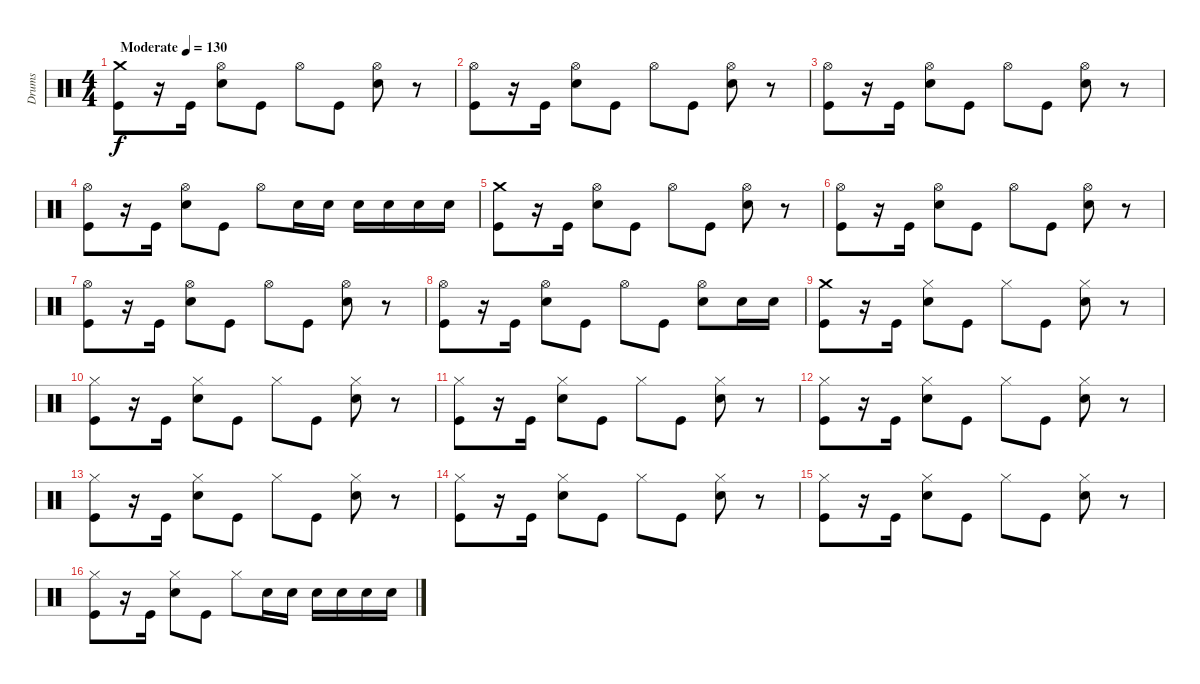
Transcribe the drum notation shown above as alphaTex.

\track ("Drums" "Drums") {instrument percussion}
\staff {score}
\articulation defaults
\ts (4 4)
\tempo (130 "Moderate")
\clef neutral
\ks c
("Crash medium (hit)" "Kick (hit)").8{dy f} r.16 "Kick (hit)".16 ("Hi-Hat (open)" "Snare (hit) 2").8 "Kick (hit)".8 "Hi-Hat (open)".8 "Kick (hit)".8 ("Hi-Hat (open)" "Snare (hit) 2").8 r.8 |
("Hi-Hat (open)" "Kick (hit)").8 r.16 "Kick (hit)".16 ("Hi-Hat (open)" "Snare (hit) 2").8 "Kick (hit)".8 "Hi-Hat (open)".8 "Kick (hit)".8 ("Hi-Hat (open)" "Snare (hit) 2").8 r.8 |
("Hi-Hat (open)" "Kick (hit)").8 r.16 "Kick (hit)".16 ("Hi-Hat (open)" "Snare (hit) 2").8 "Kick (hit)".8 "Hi-Hat (open)".8 "Kick (hit)".8 ("Hi-Hat (open)" "Snare (hit) 2").8 r.8 |
("Hi-Hat (open)" "Kick (hit)").8 r.16 "Kick (hit)".16 ("Hi-Hat (open)" "Snare (hit) 2").8 "Kick (hit)".8 "Hi-Hat (open)".8 "Snare (hit) 2".16 "Snare (hit) 2".16 "Snare (hit) 2".16 "Snare (hit) 2".16 "Snare (hit) 2".16 "Snare (hit) 2".16 |
("Crash medium (hit)" "Kick (hit)").8 r.16 "Kick (hit)".16 ("Hi-Hat (open)" "Snare (hit) 2").8 "Kick (hit)".8 "Hi-Hat (open)".8 "Kick (hit)".8 ("Hi-Hat (open)" "Snare (hit) 2").8 r.8 |
("Hi-Hat (open)" "Kick (hit)").8 r.16 "Kick (hit)".16 ("Hi-Hat (open)" "Snare (hit) 2").8 "Kick (hit)".8 "Hi-Hat (open)".8 "Kick (hit)".8 ("Hi-Hat (open)" "Snare (hit) 2").8 r.8 |
("Hi-Hat (open)" "Kick (hit)").8 r.16 "Kick (hit)".16 ("Hi-Hat (open)" "Snare (hit) 2").8 "Kick (hit)".8 "Hi-Hat (open)".8 "Kick (hit)".8 ("Hi-Hat (open)" "Snare (hit) 2").8 r.8 |
("Hi-Hat (open)" "Kick (hit)").8 r.16 "Kick (hit)".16 ("Hi-Hat (open)" "Snare (hit) 2").8 "Kick (hit)".8 "Hi-Hat (open)".8 "Kick (hit)".8 ("Hi-Hat (open)" "Snare (hit) 2").8 "Snare (hit) 2".16 "Snare (hit) 2".16 |
("Crash medium (hit)" "Kick (hit)").8 r.16 "Kick (hit)".16 ("Hi-Hat (closed)" "Snare (hit) 2").8 "Kick (hit)".8 "Hi-Hat (closed)".8 "Kick (hit)".8 ("Hi-Hat (closed)" "Snare (hit) 2").8 r.8 |
("Hi-Hat (closed)" "Kick (hit)").8 r.16 "Kick (hit)".16 ("Hi-Hat (closed)" "Snare (hit) 2").8 "Kick (hit)".8 "Hi-Hat (closed)".8 "Kick (hit)".8 ("Hi-Hat (closed)" "Snare (hit) 2").8 r.8 |
("Hi-Hat (closed)" "Kick (hit)").8 r.16 "Kick (hit)".16 ("Hi-Hat (closed)" "Snare (hit) 2").8 "Kick (hit)".8 "Hi-Hat (closed)".8 "Kick (hit)".8 ("Hi-Hat (closed)" "Snare (hit) 2").8 r.8 |
("Hi-Hat (closed)" "Kick (hit)").8 r.16 "Kick (hit)".16 ("Hi-Hat (closed)" "Snare (hit) 2").8 "Kick (hit)".8 "Hi-Hat (closed)".8 "Kick (hit)".8 ("Hi-Hat (closed)" "Snare (hit) 2").8 r.8 |
("Hi-Hat (closed)" "Kick (hit)").8 r.16 "Kick (hit)".16 ("Hi-Hat (closed)" "Snare (hit) 2").8 "Kick (hit)".8 "Hi-Hat (closed)".8 "Kick (hit)".8 ("Hi-Hat (closed)" "Snare (hit) 2").8 r.8 |
("Hi-Hat (closed)" "Kick (hit)").8 r.16 "Kick (hit)".16 ("Hi-Hat (closed)" "Snare (hit) 2").8 "Kick (hit)".8 "Hi-Hat (closed)".8 "Kick (hit)".8 ("Hi-Hat (closed)" "Snare (hit) 2").8 r.8 |
("Hi-Hat (closed)" "Kick (hit)").8 r.16 "Kick (hit)".16 ("Hi-Hat (closed)" "Snare (hit) 2").8 "Kick (hit)".8 "Hi-Hat (closed)".8 "Kick (hit)".8 ("Hi-Hat (closed)" "Snare (hit) 2").8 r.8 |
("Hi-Hat (closed)" "Kick (hit)").8 r.16 "Kick (hit)".16 ("Hi-Hat (closed)" "Snare (hit) 2").8 "Kick (hit)".8 "Hi-Hat (closed)".8 "Snare (hit) 2".16 "Snare (hit) 2".16 "Snare (hit) 2".16 "Snare (hit) 2".16 "Snare (hit) 2".16 "Snare (hit) 2".16
